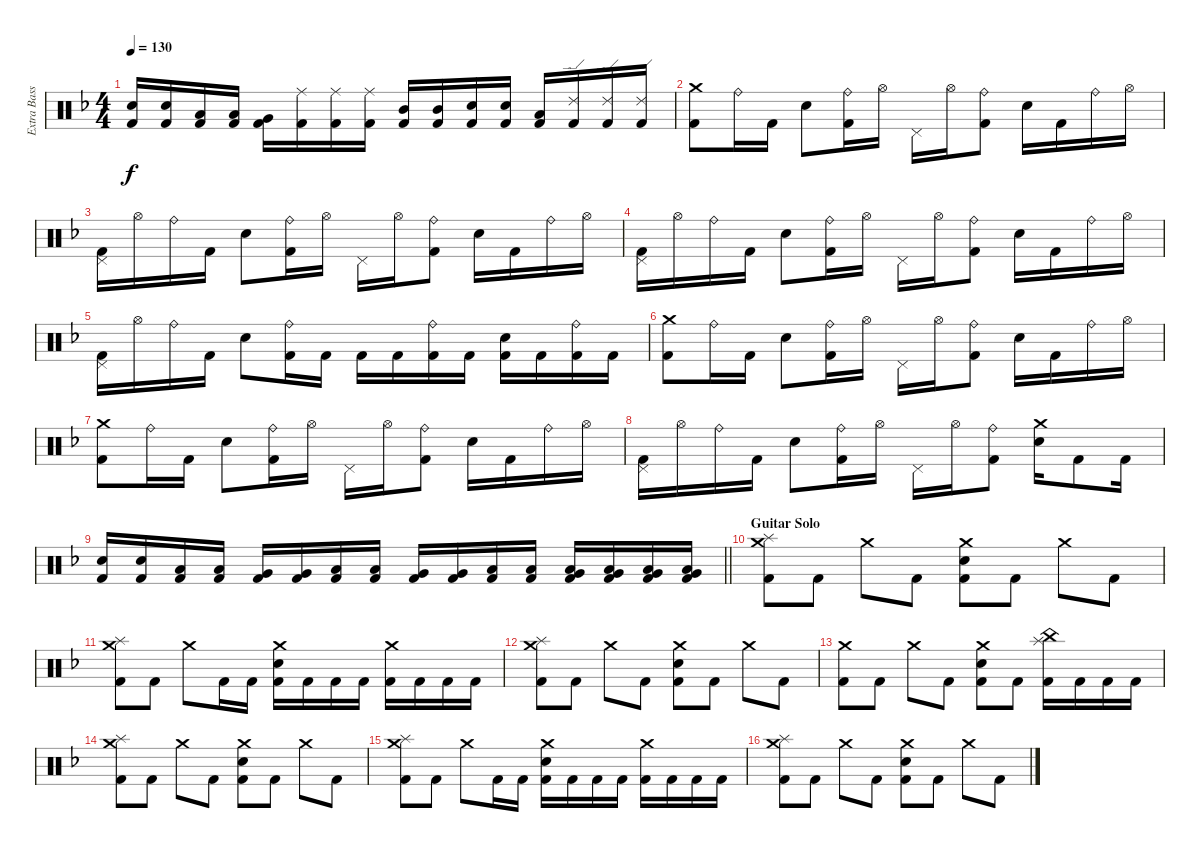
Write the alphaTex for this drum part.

\track ("Extra BassDrum" "Extra Bass") {instrument percussion}
\staff {score}
\articulation defaults
\ts (4 4)
\tempo 130
\clef neutral
\ks f
("Snare (hit) 2" "Kick (hit) 2").16{dy f} ("Snare (hit) 2" "Kick (hit) 2").16 ("Low Tom (hit)" "Kick (hit) 2").16 ("Low Tom (hit)" "Kick (hit) 2").16 ("Very Low Tom (hit)" "Kick (hit) 2").16 ("Ride (middle)" "Kick (hit) 2").16 ("Ride (middle)" "Kick (hit) 2").16 ("Ride (middle)" "Kick (hit) 2").16 ("Mid Tom (hit)" "Kick (hit) 2").16 ("Mid Tom (hit)" "Kick (hit) 2").16 ("Snare (hit) 2" "Kick (hit) 2").16 ("Snare (hit) 2" "Kick (hit) 2").16 ("Low Tom (hit)" "Kick (hit) 2").16 ("Ride (edge) 2" "Kick (hit) 2").16 ("Ride (edge) 2" "Kick (hit) 2").16 ("Ride (edge) 2" "Kick (hit) 2").16 |
("Crash medium (hit)" "Kick (hit) 2").8 "Ride (bell)".16 "Kick (hit) 2".16 "Snare (hit) 2".8 ("Ride (bell)" "Kick (hit) 2").16 "Hi-Hat (open)".16 "Pedal Hi-Hat (hit)".16 "Hi-Hat (open)".16 ("Ride (bell)" "Kick (hit) 2").8 "Snare (hit) 2".16 "Kick (hit) 2".16 "Ride (bell)".16 "Hi-Hat (open)".16 |
("Pedal Hi-Hat (hit)" "Kick (hit) 2").16 "Hi-Hat (open)".16 "Ride (bell)".16 "Kick (hit) 2".16 "Snare (hit) 2".8 ("Ride (bell)" "Kick (hit) 2").16 "Hi-Hat (open)".16 "Pedal Hi-Hat (hit)".16 "Hi-Hat (open)".16 ("Ride (bell)" "Kick (hit) 2").8 "Snare (hit) 2".16 "Kick (hit) 2".16 "Ride (bell)".16 "Hi-Hat (open)".16 |
("Pedal Hi-Hat (hit)" "Kick (hit) 2").16 "Hi-Hat (open)".16 "Ride (bell)".16 "Kick (hit) 2".16 "Snare (hit) 2".8 ("Ride (bell)" "Kick (hit) 2").16 "Hi-Hat (open)".16 "Pedal Hi-Hat (hit)".16 "Hi-Hat (open)".16 ("Ride (bell)" "Kick (hit) 2").8 "Snare (hit) 2".16 "Kick (hit) 2".16 "Ride (bell)".16 "Hi-Hat (open)".16 |
("Pedal Hi-Hat (hit)" "Kick (hit) 2").16 "Hi-Hat (open)".16 "Ride (bell)".16 "Kick (hit) 2".16 "Snare (hit) 2".8 ("Ride (bell)" "Kick (hit) 2").16 "Kick (hit) 2".16 "Kick (hit) 2".16 "Kick (hit) 2".16 ("Ride (bell)" "Kick (hit) 2").16 "Kick (hit) 2".16 ("Snare (hit) 2" "Kick (hit) 2").16 "Kick (hit) 2".16 ("Ride (bell)" "Kick (hit) 2").16 "Kick (hit) 2".16 |
("Crash medium (hit)" "Kick (hit) 2").8 "Ride (bell)".16 "Kick (hit) 2".16 "Snare (hit) 2".8 ("Ride (bell)" "Kick (hit) 2").16 "Hi-Hat (open)".16 "Pedal Hi-Hat (hit)".16 "Hi-Hat (open)".16 ("Ride (bell)" "Kick (hit) 2").8 "Snare (hit) 2".16 "Kick (hit) 2".16 "Ride (bell)".16 "Hi-Hat (open)".16 |
("Crash medium (hit)" "Kick (hit) 2").8 "Ride (bell)".16 "Kick (hit) 2".16 "Snare (hit) 2".8 ("Ride (bell)" "Kick (hit) 2").16 "Hi-Hat (open)".16 "Pedal Hi-Hat (hit)".16 "Hi-Hat (open)".16 ("Ride (bell)" "Kick (hit) 2").8 "Snare (hit) 2".16 "Kick (hit) 2".16 "Ride (bell)".16 "Hi-Hat (open)".16 |
("Pedal Hi-Hat (hit)" "Kick (hit) 2").16 "Hi-Hat (open)".16 "Ride (bell)".16 "Kick (hit) 2".16 "Snare (hit) 2".8 ("Ride (bell)" "Kick (hit) 2").16 "Hi-Hat (open)".16 "Pedal Hi-Hat (hit)".16 "Hi-Hat (open)".16 ("Ride (bell)" "Kick (hit) 2").8 ("Crash medium (hit)" "Snare (hit) 2").16 "Kick (hit) 2".8 "Kick (hit) 2".16 |
\barLineRight lightlight
("Snare (hit) 2" "Kick (hit) 2").16 ("Snare (hit) 2" "Kick (hit) 2").16 ("Low Tom (hit)" "Kick (hit) 2").16 ("Low Tom (hit)" "Kick (hit) 2").16 ("Very Low Tom (hit)" "Kick (hit) 2").16 ("Very Low Tom (hit)" "Kick (hit) 2").16 ("Low Floor Tom (hit)" "Kick (hit) 2").16 ("Low Floor Tom (hit)" "Kick (hit) 2").16 ("Very Low Tom (hit)" "Kick (hit) 2").16 ("Very Low Tom (hit)" "Kick (hit) 2").16 ("Low Floor Tom (hit)" "Kick (hit) 2").16 ("Low Floor Tom (hit)" "Kick (hit) 2").16 ("Very Low Tom (hit)" "Low Floor Tom (hit)" "Kick (hit) 2").16 ("Very Low Tom (hit)" "Low Floor Tom (hit)" "Kick (hit) 2").16 ("Very Low Tom (hit)" "Low Floor Tom (hit)" "Kick (hit) 2").16 ("Very Low Tom (hit)" "Low Floor Tom (hit)" "Kick (hit) 2").16 |
\section ("" "Guitar Solo")
("Crash medium (hit)" "Splash (hit)" "Kick (hit) 2").8 "Kick (hit) 2".8 "Crash medium (hit)".8 "Kick (hit) 2".8 ("Crash medium (hit)" "Snare (hit) 2" "Kick (hit) 2").8 "Kick (hit) 2".8 "Crash medium (hit)".8 "Kick (hit) 2".8 |
("Crash medium (hit)" "Splash (hit)" "Kick (hit) 2").8 "Kick (hit) 2".8 "Crash medium (hit)".8 "Kick (hit) 2".16 "Kick (hit) 2".16 ("Crash medium (hit)" "Snare (hit) 2" "Kick (hit) 2").16 "Kick (hit) 2".16 "Kick (hit) 2".16 "Kick (hit) 2".16 ("Crash medium (hit)" "Kick (hit) 2").16 "Kick (hit) 2".16 "Kick (hit) 2".16 "Kick (hit) 2".16 |
("Crash medium (hit)" "Splash (hit)" "Kick (hit) 2").8 "Kick (hit) 2".8 "Crash medium (hit)".8 "Kick (hit) 2".8 ("Crash medium (hit)" "Snare (hit) 2" "Kick (hit) 2").8 "Kick (hit) 2".8 "Crash medium (hit)".8 "Kick (hit) 2".8 |
("Crash medium (hit)" "Kick (hit) 2").8 "Kick (hit) 2".8 "Crash medium (hit)".8 "Kick (hit) 2".8 ("Crash medium (hit)" "Snare (hit) 2" "Kick (hit) 2").8 "Kick (hit) 2".8 ("China (hit)" "Splash (hit)" "Kick (hit) 2").16 "Kick (hit) 2".16 "Kick (hit) 2".16 "Kick (hit) 2".16 |
("Crash medium (hit)" "Splash (hit)" "Kick (hit) 2").8 "Kick (hit) 2".8 "Crash medium (hit)".8 "Kick (hit) 2".8 ("Crash medium (hit)" "Snare (hit) 2" "Kick (hit) 2").8 "Kick (hit) 2".8 "Crash medium (hit)".8 "Kick (hit) 2".8 |
("Crash medium (hit)" "Splash (hit)" "Kick (hit) 2").8 "Kick (hit) 2".8 "Crash medium (hit)".8 "Kick (hit) 2".16 "Kick (hit) 2".16 ("Crash medium (hit)" "Snare (hit) 2" "Kick (hit) 2").16 "Kick (hit) 2".16 "Kick (hit) 2".16 "Kick (hit) 2".16 ("Crash medium (hit)" "Kick (hit) 2").16 "Kick (hit) 2".16 "Kick (hit) 2".16 "Kick (hit) 2".16 |
("Crash medium (hit)" "Splash (hit)" "Kick (hit) 2").8 "Kick (hit) 2".8 "Crash medium (hit)".8 "Kick (hit) 2".8 ("Crash medium (hit)" "Snare (hit) 2" "Kick (hit) 2").8 "Kick (hit) 2".8 "Crash medium (hit)".8 "Kick (hit) 2".8
